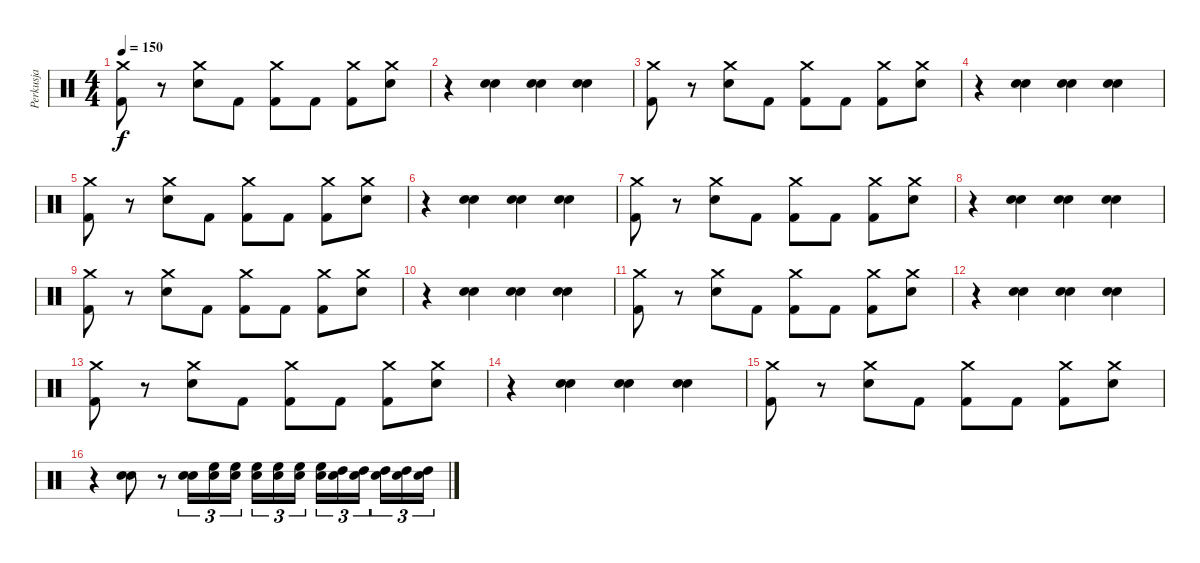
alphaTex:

\track ("Perkusja" "Perkusja") {instrument percussion}
\staff {score}
\articulation defaults
\ts (4 4)
\tempo 150
\clef neutral
\ks c
("Crash medium (hit)" "Kick (hit) 2").8{dy f} r.8 ("Crash medium (hit)" "Snare (hit) 2").8 "Kick (hit) 2".8 ("Crash medium (hit)" "Kick (hit) 2").8 "Kick (hit) 2".8 ("Crash medium (hit)" "Kick (hit) 2").8 ("Crash medium (hit)" "Snare (hit) 2").8 |
r.4 ("Hand Clap (hit)" "Hand Clap (hit)").4{bd 60} ("Hand Clap (hit)" "Hand Clap (hit)").4{bd 60} ("Hand Clap (hit)" "Hand Clap (hit)").4{bd 60} |
("Crash medium (hit)" "Kick (hit) 2").8 r.8 ("Crash medium (hit)" "Snare (hit) 2").8 "Kick (hit) 2".8 ("Crash medium (hit)" "Kick (hit) 2").8 "Kick (hit) 2".8 ("Crash medium (hit)" "Kick (hit) 2").8 ("Crash medium (hit)" "Snare (hit) 2").8 |
r.4 ("Hand Clap (hit)" "Hand Clap (hit)").4{bd 60} ("Hand Clap (hit)" "Hand Clap (hit)").4{bd 60} ("Hand Clap (hit)" "Hand Clap (hit)").4{bd 60} |
("Crash medium (hit)" "Kick (hit) 2").8 r.8 ("Crash medium (hit)" "Snare (hit) 2").8 "Kick (hit) 2".8 ("Crash medium (hit)" "Kick (hit) 2").8 "Kick (hit) 2".8 ("Crash medium (hit)" "Kick (hit) 2").8 ("Crash medium (hit)" "Snare (hit) 2").8 |
r.4 ("Hand Clap (hit)" "Hand Clap (hit)").4{bd 60} ("Hand Clap (hit)" "Hand Clap (hit)").4{bd 60} ("Hand Clap (hit)" "Hand Clap (hit)").4{bd 60} |
("Crash medium (hit)" "Kick (hit) 2").8 r.8 ("Crash medium (hit)" "Snare (hit) 2").8 "Kick (hit) 2".8 ("Crash medium (hit)" "Kick (hit) 2").8 "Kick (hit) 2".8 ("Crash medium (hit)" "Kick (hit) 2").8 ("Crash medium (hit)" "Snare (hit) 2").8 |
r.4 ("Hand Clap (hit)" "Hand Clap (hit)").4{bd 60} ("Hand Clap (hit)" "Hand Clap (hit)").4{bd 60} ("Hand Clap (hit)" "Hand Clap (hit)").4{bd 60} |
("Crash medium (hit)" "Kick (hit) 2").8 r.8 ("Crash medium (hit)" "Snare (hit) 2").8 "Kick (hit) 2".8 ("Crash medium (hit)" "Kick (hit) 2").8 "Kick (hit) 2".8 ("Crash medium (hit)" "Kick (hit) 2").8 ("Crash medium (hit)" "Snare (hit) 2").8 |
r.4 ("Hand Clap (hit)" "Hand Clap (hit)").4{bd 60} ("Hand Clap (hit)" "Hand Clap (hit)").4{bd 60} ("Hand Clap (hit)" "Hand Clap (hit)").4{bd 60} |
("Crash medium (hit)" "Kick (hit) 2").8 r.8 ("Crash medium (hit)" "Snare (hit) 2").8 "Kick (hit) 2".8 ("Crash medium (hit)" "Kick (hit) 2").8 "Kick (hit) 2".8 ("Crash medium (hit)" "Kick (hit) 2").8 ("Crash medium (hit)" "Snare (hit) 2").8 |
r.4 ("Hand Clap (hit)" "Hand Clap (hit)").4{bd 60} ("Hand Clap (hit)" "Hand Clap (hit)").4{bd 60} ("Hand Clap (hit)" "Hand Clap (hit)").4{bd 60} |
("Crash medium (hit)" "Kick (hit) 2").8 r.8 ("Crash medium (hit)" "Snare (hit) 2").8 "Kick (hit) 2".8 ("Crash medium (hit)" "Kick (hit) 2").8 "Kick (hit) 2".8 ("Crash medium (hit)" "Kick (hit) 2").8 ("Crash medium (hit)" "Snare (hit) 2").8 |
r.4 ("Hand Clap (hit)" "Hand Clap (hit)").4{bd 60} ("Hand Clap (hit)" "Hand Clap (hit)").4{bd 60} ("Hand Clap (hit)" "Hand Clap (hit)").4{bd 60} |
("Crash medium (hit)" "Kick (hit) 2").8 r.8 ("Crash medium (hit)" "Snare (hit) 2").8 "Kick (hit) 2".8 ("Crash medium (hit)" "Kick (hit) 2").8 "Kick (hit) 2".8 ("Crash medium (hit)" "Kick (hit) 2").8 ("Crash medium (hit)" "Snare (hit) 2").8 |
r.4 ("Hand Clap (hit)" "Hand Clap (hit)").8 r.8 ("Hand Clap (hit)" "Hand Clap (hit)").16{tu (3 2)} ("Electric Snare (hit)" "High Floor Tom (hit)").16{tu (3 2)} ("Electric Snare (hit)" "High Floor Tom (hit)").16{tu (3 2)} ("Electric Snare (hit)" "High Floor Tom (hit)").16{tu (3 2)} ("Electric Snare (hit)" "High Floor Tom (hit)").16{tu (3 2)} ("Electric Snare (hit)" "High Floor Tom (hit)").16{tu (3 2)} ("Electric Snare (hit)" "High Floor Tom (hit)").16{tu (3 2)} ("High Tom (hit)" "Electric Snare (hit)").16{tu (3 2)} ("High Tom (hit)" "Electric Snare (hit)").16{tu (3 2)} ("High Tom (hit)" "Electric Snare (hit)").16{tu (3 2)} ("High Tom (hit)" "Electric Snare (hit)").16{tu (3 2)} ("High Tom (hit)" "Electric Snare (hit)").16{tu (3 2)}
